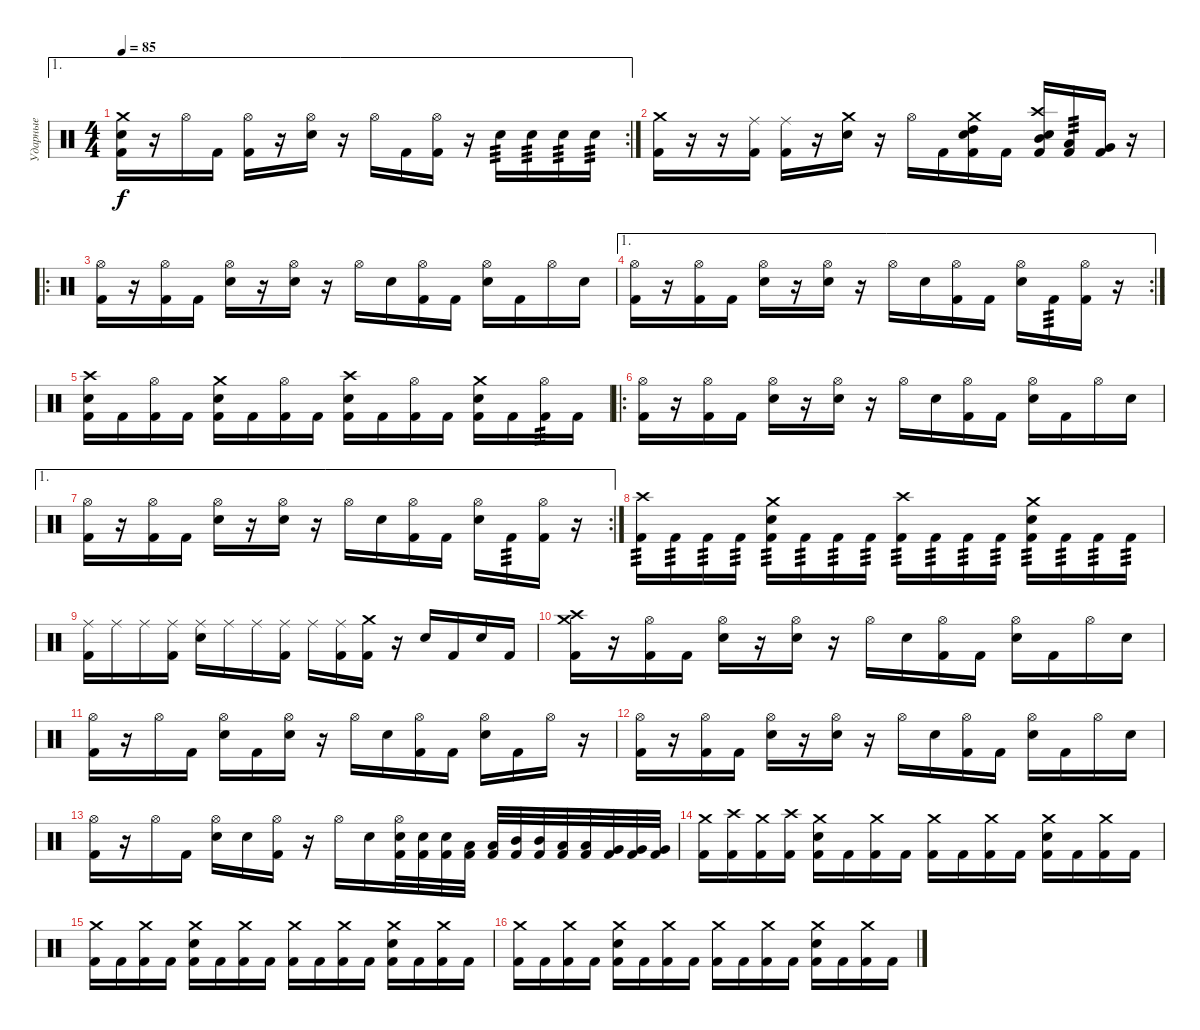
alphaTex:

\track ("Ударные" "Ударные") {instrument percussion}
\staff {score}
\articulation defaults
\ae 1
\rc 2
\ts (4 4)
\tempo 85
\clef neutral
\ks c
("Crash medium (hit)" "Electric Snare (hit)" "Kick (hit) 2").16{dy f} r.16 "Hi-Hat (open)".16 "Kick (hit) 2".16 ("Hi-Hat (open)" "Kick (hit) 2").16 r.16 ("Hi-Hat (open)" "Electric Snare (hit)").16 r.16 "Hi-Hat (open)".16 "Kick (hit) 2".16 ("Hi-Hat (open)" "Kick (hit) 2").16 r.16 "Electric Snare (hit)".16{tp 3} "Electric Snare (hit)".16{tp 3} "Electric Snare (hit)".16{tp 3} "Electric Snare (hit)".16{tp 3} |
("Crash medium (hit)" "Kick (hit) 2").16 r.16 r.16 ("Ride (middle)" "Kick (hit) 2").16 ("Ride (middle)" "Kick (hit) 2").16 r.16 ("Crash medium (hit)" "Electric Snare (hit)").16 r.16 "Hi-Hat (open)".16 "Kick (hit) 2".16 ("Crash medium (hit)" "High Tom (hit)" "Electric Snare (hit)" "Kick (hit) 2").16 "Kick (hit) 2".16 ("Crash high (hit)" "Mid Tom (hit)" "Electric Snare (hit)" "Kick (hit) 2").16 ("Low Tom (hit)" "Kick (hit) 2").16{tp 3} ("Very Low Tom (hit)" "Kick (hit) 2").16 r.16 |
\ro
("Hi-Hat (open)" "Kick (hit) 2").16 r.16 ("Hi-Hat (open)" "Kick (hit) 2").16 "Kick (hit) 2".16 ("Hi-Hat (open)" "Electric Snare (hit)").16 r.16 ("Hi-Hat (open)" "Electric Snare (hit)").16 r.16 "Hi-Hat (open)".16 "Electric Snare (hit)".16 ("Hi-Hat (open)" "Kick (hit) 2").16 "Kick (hit) 2".16 ("Hi-Hat (open)" "Electric Snare (hit)").16 "Kick (hit) 2".16 "Hi-Hat (open)".16 "Electric Snare (hit)".16 |
\ae 1
\rc 2
("Hi-Hat (open)" "Kick (hit) 2").16 r.16 ("Hi-Hat (open)" "Kick (hit) 2").16 "Kick (hit) 2".16 ("Hi-Hat (open)" "Electric Snare (hit)").16 r.16 ("Hi-Hat (open)" "Electric Snare (hit)").16 r.16 "Hi-Hat (open)".16 "Electric Snare (hit)".16 ("Hi-Hat (open)" "Kick (hit) 2").16 "Kick (hit) 2".16 ("Hi-Hat (open)" "Electric Snare (hit)").16 "Kick (hit) 2".16{tp 3} ("Hi-Hat (open)" "Kick (hit) 2").16 r.16 |
("Crash high (hit)" "Electric Snare (hit)" "Kick (hit) 2").16 "Kick (hit) 2".16 ("Hi-Hat (open)" "Kick (hit) 2").16 "Kick (hit) 2".16 ("Crash medium (hit)" "Electric Snare (hit)" "Kick (hit) 2").16 "Kick (hit) 2".16 ("Hi-Hat (open)" "Kick (hit) 2").16 "Kick (hit) 2".16 ("Crash high (hit)" "Electric Snare (hit)" "Kick (hit) 2").16 "Kick (hit) 2".16 ("Hi-Hat (open)" "Kick (hit) 2").16 "Kick (hit) 2".16 ("Crash medium (hit)" "Electric Snare (hit)" "Kick (hit) 2").16 "Kick (hit) 2".16 ("Hi-Hat (open)" "Kick (hit) 2").16{tp 3} "Kick (hit) 2".16 |
\ro
("Hi-Hat (open)" "Kick (hit) 2").16 r.16 ("Hi-Hat (open)" "Kick (hit) 2").16 "Kick (hit) 2".16 ("Hi-Hat (open)" "Electric Snare (hit)").16 r.16 ("Hi-Hat (open)" "Electric Snare (hit)").16 r.16 "Hi-Hat (open)".16 "Electric Snare (hit)".16 ("Hi-Hat (open)" "Kick (hit) 2").16 "Kick (hit) 2".16 ("Hi-Hat (open)" "Electric Snare (hit)").16 "Kick (hit) 2".16 "Hi-Hat (open)".16 "Electric Snare (hit)".16 |
\ae 1
\rc 2
("Hi-Hat (open)" "Kick (hit) 2").16 r.16 ("Hi-Hat (open)" "Kick (hit) 2").16 "Kick (hit) 2".16 ("Hi-Hat (open)" "Electric Snare (hit)").16 r.16 ("Hi-Hat (open)" "Electric Snare (hit)").16 r.16 "Hi-Hat (open)".16 "Electric Snare (hit)".16 ("Hi-Hat (open)" "Kick (hit) 2").16 "Kick (hit) 2".16 ("Hi-Hat (open)" "Electric Snare (hit)").16 "Kick (hit) 2".16{tp 3} ("Hi-Hat (open)" "Kick (hit) 2").16 r.16 |
("Crash high (hit)" "Kick (hit) 2").16{tp 3} "Kick (hit) 2".16{tp 3} "Kick (hit) 2".16{tp 3} "Kick (hit) 2".16{tp 3} ("Crash medium (hit)" "Electric Snare (hit)" "Kick (hit) 2").16{tp 3} "Kick (hit) 2".16{tp 3} "Kick (hit) 2".16{tp 3} "Kick (hit) 2".16{tp 3} ("Crash high (hit)" "Kick (hit) 2").16{tp 3} "Kick (hit) 2".16{tp 3} "Kick (hit) 2".16{tp 3} "Kick (hit) 2".16{tp 3} ("Crash medium (hit)" "Electric Snare (hit)" "Kick (hit) 2").16{tp 3} "Kick (hit) 2".16{tp 3} "Kick (hit) 2".16{tp 3} "Kick (hit) 2".16{tp 3} |
("Ride (middle)" "Kick (hit) 2").16 "Ride (middle)".16 "Ride (middle)".16 ("Ride (middle)" "Kick (hit) 2").16 ("Ride (middle)" "Electric Snare (hit)").16 "Ride (middle)".16 "Ride (middle)".16 ("Ride (middle)" "Kick (hit) 2").16 "Ride (middle)".16 ("Ride (middle)" "Kick (hit) 2").16 ("Crash medium (hit)" "Kick (hit) 2").16 r.16 "Electric Snare (hit)"{tr (40 32)}.16 "Kick (hit) 2"{tr (36 32)}.16 "Electric Snare (hit)"{tr (40 32)}.16 "Kick (hit) 2"{tr (36 32)}.16 |
("Crash medium (hit)" "Crash high (hit)" "Kick (hit) 2").16 r.16 ("Hi-Hat (open)" "Kick (hit) 2").16 "Kick (hit) 2".16 ("Hi-Hat (open)" "Electric Snare (hit)").16 r.16 ("Hi-Hat (open)" "Electric Snare (hit)").16 r.16 "Hi-Hat (open)".16 "Electric Snare (hit)".16 ("Hi-Hat (open)" "Kick (hit) 2").16 "Kick (hit) 2".16 ("Hi-Hat (open)" "Electric Snare (hit)").16 "Kick (hit) 2".16 "Hi-Hat (open)".16 "Electric Snare (hit)".16 |
("Hi-Hat (open)" "Kick (hit) 2").16 r.16 "Hi-Hat (open)".16 "Kick (hit) 2".16 ("Hi-Hat (open)" "Electric Snare (hit)").16 "Kick (hit) 2".16 ("Hi-Hat (open)" "Electric Snare (hit)").16 r.16 "Hi-Hat (open)".16 "Electric Snare (hit)".16 ("Hi-Hat (open)" "Kick (hit) 2").16 "Kick (hit) 2".16 ("Hi-Hat (open)" "Electric Snare (hit)").16 "Kick (hit) 2".16 "Hi-Hat (open)".16 r.16 |
("Hi-Hat (open)" "Kick (hit) 2").16 r.16 ("Hi-Hat (open)" "Kick (hit) 2").16 "Kick (hit) 2".16 ("Hi-Hat (open)" "Electric Snare (hit)").16 r.16 ("Hi-Hat (open)" "Electric Snare (hit)").16 r.16 "Hi-Hat (open)".16 "Electric Snare (hit)".16 ("Hi-Hat (open)" "Kick (hit) 2").16 "Kick (hit) 2".16 ("Hi-Hat (open)" "Electric Snare (hit)").16 "Kick (hit) 2".16 "Hi-Hat (open)".16 "Electric Snare (hit)".16 |
("Hi-Hat (open)" "Kick (hit) 2").16 r.16 "Hi-Hat (open)".16 "Kick (hit) 2".16 ("Hi-Hat (open)" "Electric Snare (hit)").16 "Electric Snare (hit)".16 ("Hi-Hat (open)" "Kick (hit) 2").16 r.16 "Hi-Hat (open)".16 "Electric Snare (hit)".16 ("Hi-Hat (open)" "Electric Snare (hit)" "Kick (hit) 2").32 ("Electric Snare (hit)" "Kick (hit) 2").32 ("Electric Snare (hit)" "Kick (hit) 2").32 ("Low Tom (hit)" "Kick (hit) 2").32 ("Low Tom (hit)" "Kick (hit) 2").32 ("Mid Tom (hit)" "Kick (hit) 2").32 ("Mid Tom (hit)" "Kick (hit) 2").32 ("Low Tom (hit)" "Kick (hit) 2").32 ("Low Tom (hit)" "Kick (hit) 2").32 ("Very Low Tom (hit)" "Kick (hit) 2").32 ("Very Low Tom (hit)" "Kick (hit) 2").32 ("Very Low Tom (hit)" "Kick (hit) 2").32 |
("Crash medium (hit)" "Kick (hit) 2").16 ("Crash high (hit)" "Kick (hit) 2").16 ("Crash medium (hit)" "Kick (hit) 2").16 ("Crash high (hit)" "Kick (hit) 2").16 ("Crash medium (hit)" "Electric Snare (hit)" "Kick (hit) 2").16 "Kick (hit) 2".16 ("Crash medium (hit)" "Kick (hit) 2").16 "Kick (hit) 2".16 ("Crash medium (hit)" "Kick (hit) 2").16 "Kick (hit) 2".16 ("Crash medium (hit)" "Kick (hit) 2").16 "Kick (hit) 2".16 ("Crash medium (hit)" "Electric Snare (hit)" "Kick (hit) 2").16 "Kick (hit) 2".16 ("Crash medium (hit)" "Kick (hit) 2").16 "Kick (hit) 2".16 |
("Crash medium (hit)" "Kick (hit) 2").16 "Kick (hit) 2".16 ("Crash medium (hit)" "Kick (hit) 2").16 "Kick (hit) 2".16 ("Crash medium (hit)" "Electric Snare (hit)" "Kick (hit) 2").16 "Kick (hit) 2".16 ("Crash medium (hit)" "Kick (hit) 2").16 "Kick (hit) 2".16 ("Crash medium (hit)" "Kick (hit) 2").16 "Kick (hit) 2".16 ("Crash medium (hit)" "Kick (hit) 2").16 "Kick (hit) 2".16 ("Crash medium (hit)" "Electric Snare (hit)" "Kick (hit) 2").16 "Kick (hit) 2".16 ("Crash medium (hit)" "Kick (hit) 2").16 "Kick (hit) 2".16 |
("Crash medium (hit)" "Kick (hit) 2").16 "Kick (hit) 2".16 ("Crash medium (hit)" "Kick (hit) 2").16 "Kick (hit) 2".16 ("Crash medium (hit)" "Electric Snare (hit)" "Kick (hit) 2").16 "Kick (hit) 2".16 ("Crash medium (hit)" "Kick (hit) 2").16 "Kick (hit) 2".16 ("Crash medium (hit)" "Kick (hit) 2").16 "Kick (hit) 2".16 ("Crash medium (hit)" "Kick (hit) 2").16 "Kick (hit) 2".16 ("Crash medium (hit)" "Electric Snare (hit)" "Kick (hit) 2").16 "Kick (hit) 2".16 ("Crash medium (hit)" "Kick (hit) 2").16 "Kick (hit) 2".16
